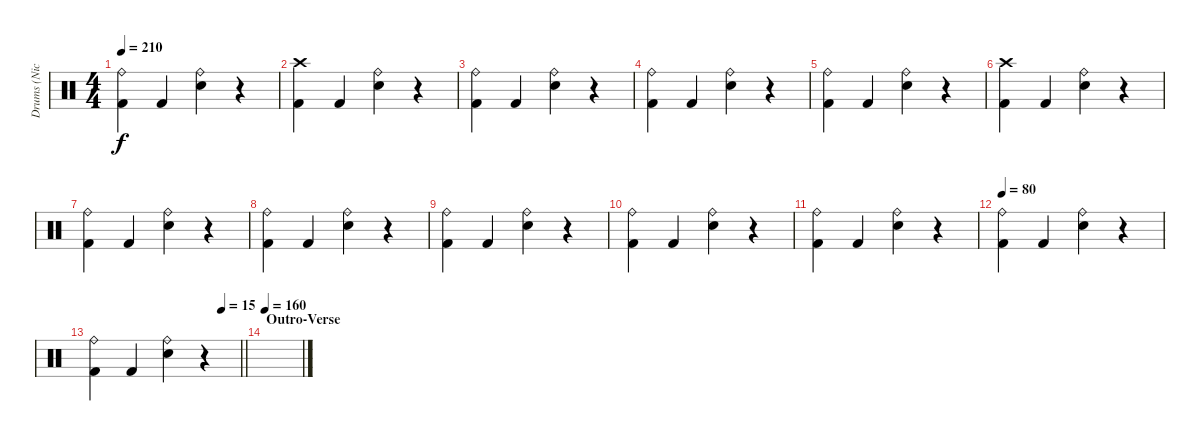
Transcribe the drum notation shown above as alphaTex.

\track ("Drums (Nicko McBrain)" "Drums (Nic") {instrument percussion}
\staff {score}
\articulation defaults
\ts (4 4)
\tempo 210
\clef neutral
\ks c
("Ride (bell)" "Kick (hit) 2").4{dy f} "Kick (hit) 2".4 ("Ride (bell)" "Electric Snare (hit)").4 r.4 |
("Crash high (hit)" "Kick (hit) 2").4 "Kick (hit) 2".4 ("Ride (bell)" "Electric Snare (hit)").4 r.4 |
("Ride (bell)" "Kick (hit) 2").4 "Kick (hit) 2".4 ("Ride (bell)" "Electric Snare (hit)").4 r.4 |
("Ride (bell)" "Kick (hit) 2").4 "Kick (hit) 2".4 ("Ride (bell)" "Electric Snare (hit)").4 r.4 |
("Ride (bell)" "Kick (hit) 2").4 "Kick (hit) 2".4 ("Ride (bell)" "Electric Snare (hit)").4 r.4 |
("Crash high (hit)" "Kick (hit) 2").4 "Kick (hit) 2".4 ("Ride (bell)" "Electric Snare (hit)").4 r.4 |
("Ride (bell)" "Kick (hit) 2").4 "Kick (hit) 2".4 ("Ride (bell)" "Electric Snare (hit)").4 r.4 |
("Ride (bell)" "Kick (hit) 2").4 "Kick (hit) 2".4 ("Ride (bell)" "Electric Snare (hit)").4 r.4 |
("Ride (bell)" "Kick (hit) 2").4 "Kick (hit) 2".4 ("Ride (bell)" "Electric Snare (hit)").4 r.4 |
("Ride (bell)" "Kick (hit) 2").4 "Kick (hit) 2".4 ("Ride (bell)" "Electric Snare (hit)").4 r.4 |
("Ride (bell)" "Kick (hit) 2").4 "Kick (hit) 2".4 ("Ride (bell)" "Electric Snare (hit)").4 r.4 |
\tempo 80
("Ride (bell)" "Kick (hit) 2").4 "Kick (hit) 2".4 ("Ride (bell)" "Electric Snare (hit)").4 r.4 |
\tempo (15 0.875)
\barLineRight lightlight
("Ride (bell)" "Kick (hit) 2").4 "Kick (hit) 2".4 ("Ride (bell)" "Electric Snare (hit)").4 r.4 |
\section ("" "Outro-Verse")
\tempo 160
